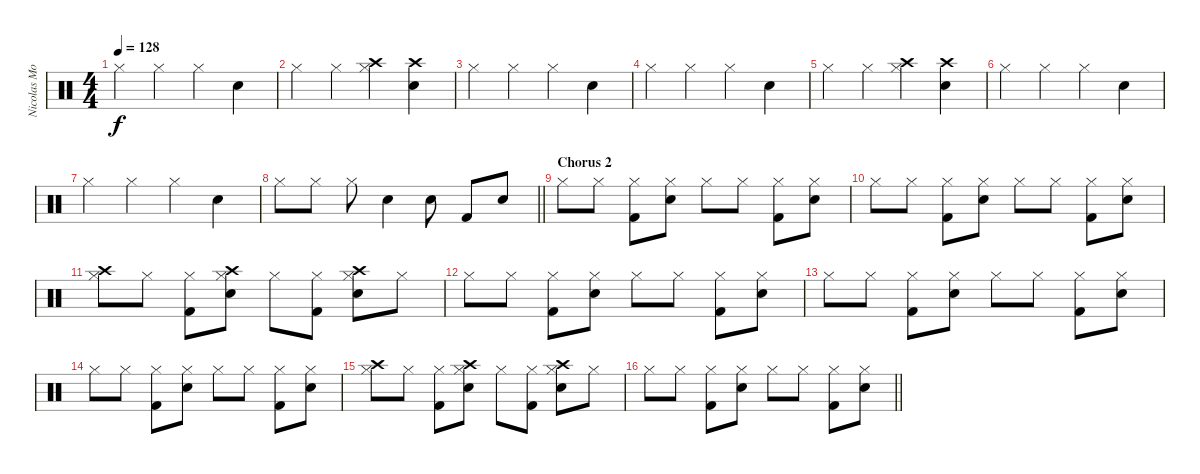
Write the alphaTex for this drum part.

\track ("Nicolas Mosquera" "Nicolas Mo") {mute instrument percussion}
\staff {score}
\articulation defaults
\ts (4 4)
\tempo 128
\clef neutral
\ks c "Hi-Hat (closed)".4{dy f} "Hi-Hat (closed)".4 "Hi-Hat (closed)".4 "Snare (hit) 2".4
|
"Hi-Hat (closed)".4 "Hi-Hat (closed)".4 ("Hi-Hat (closed)" "Crash high (hit)").4 ("Snare (hit) 2" "Crash high (hit)").4 |
"Hi-Hat (closed)".4 "Hi-Hat (closed)".4 "Hi-Hat (closed)".4 "Snare (hit) 2".4 |
"Hi-Hat (closed)".4 "Hi-Hat (closed)".4 "Hi-Hat (closed)".4 "Snare (hit) 2".4 |
"Hi-Hat (closed)".4 "Hi-Hat (closed)".4 ("Hi-Hat (closed)" "Crash high (hit)").4 ("Snare (hit) 2" "Crash high (hit)").4 |
"Hi-Hat (closed)".4 "Hi-Hat (closed)".4 "Hi-Hat (closed)".4 "Snare (hit) 2".4 |
"Hi-Hat (closed)".4 "Hi-Hat (closed)".4 "Hi-Hat (closed)".4 "Snare (hit) 2".4 |
\barLineRight lightlight "Hi-Hat (closed)".8 "Hi-Hat (closed)".8 "Hi-Hat (closed)".8 "Snare (hit) 2".4 "Snare (hit) 2".8 "Kick (hit) 2".8 "Snare (hit) 2".8
|
\section ("" "Chorus 2")
"Hi-Hat (closed)".8 "Hi-Hat (closed)".8 ("Hi-Hat (closed)" "Kick (hit) 2").8 ("Hi-Hat (closed)" "Snare (hit) 2").8 "Hi-Hat (closed)".8 "Hi-Hat (closed)".8 ("Hi-Hat (closed)" "Kick (hit) 2").8 ("Hi-Hat (closed)" "Snare (hit) 2").8 |
"Hi-Hat (closed)".8 "Hi-Hat (closed)".8 ("Hi-Hat (closed)" "Kick (hit) 2").8 ("Hi-Hat (closed)" "Snare (hit) 2").8 "Hi-Hat (closed)".8 "Hi-Hat (closed)".8 ("Hi-Hat (closed)" "Kick (hit) 2").8 ("Hi-Hat (closed)" "Snare (hit) 2").8 |
("Hi-Hat (closed)" "Crash high (hit)").8 "Hi-Hat (closed)".8 ("Hi-Hat (closed)" "Kick (hit) 2").8 ("Hi-Hat (closed)" "Snare (hit) 2" "Crash high (hit)").8 "Hi-Hat (closed)".8 ("Hi-Hat (closed)" "Kick (hit) 2").8 ("Hi-Hat (closed)" "Snare (hit) 2" "Crash high (hit)").8 "Hi-Hat (closed)".8 |
"Hi-Hat (closed)".8 "Hi-Hat (closed)".8 ("Hi-Hat (closed)" "Kick (hit) 2").8 ("Hi-Hat (closed)" "Snare (hit) 2").8 "Hi-Hat (closed)".8 "Hi-Hat (closed)".8 ("Hi-Hat (closed)" "Kick (hit) 2").8 ("Hi-Hat (closed)" "Snare (hit) 2").8 |
"Hi-Hat (closed)".8 "Hi-Hat (closed)".8 ("Hi-Hat (closed)" "Kick (hit) 2").8 ("Hi-Hat (closed)" "Snare (hit) 2").8 "Hi-Hat (closed)".8 "Hi-Hat (closed)".8 ("Hi-Hat (closed)" "Kick (hit) 2").8 ("Hi-Hat (closed)" "Snare (hit) 2").8 |
"Hi-Hat (closed)".8 "Hi-Hat (closed)".8 ("Hi-Hat (closed)" "Kick (hit) 2").8 ("Hi-Hat (closed)" "Snare (hit) 2").8 "Hi-Hat (closed)".8 "Hi-Hat (closed)".8 ("Hi-Hat (closed)" "Kick (hit) 2").8 ("Hi-Hat (closed)" "Snare (hit) 2").8 |
("Hi-Hat (closed)" "Crash high (hit)").8 "Hi-Hat (closed)".8 ("Hi-Hat (closed)" "Kick (hit) 2").8 ("Hi-Hat (closed)" "Snare (hit) 2" "Crash high (hit)").8 "Hi-Hat (closed)".8 ("Hi-Hat (closed)" "Kick (hit) 2").8 ("Hi-Hat (closed)" "Snare (hit) 2" "Crash high (hit)").8 "Hi-Hat (closed)".8 |
\barLineRight lightlight "Hi-Hat (closed)".8 "Hi-Hat (closed)".8
("Hi-Hat (closed)" "Kick (hit) 2").8 ("Hi-Hat (closed)" "Snare (hit) 2").8 "Hi-Hat (closed)".8 "Hi-Hat (closed)".8 ("Hi-Hat (closed)" "Kick (hit) 2").8 ("Hi-Hat (closed)" "Snare (hit) 2").8
